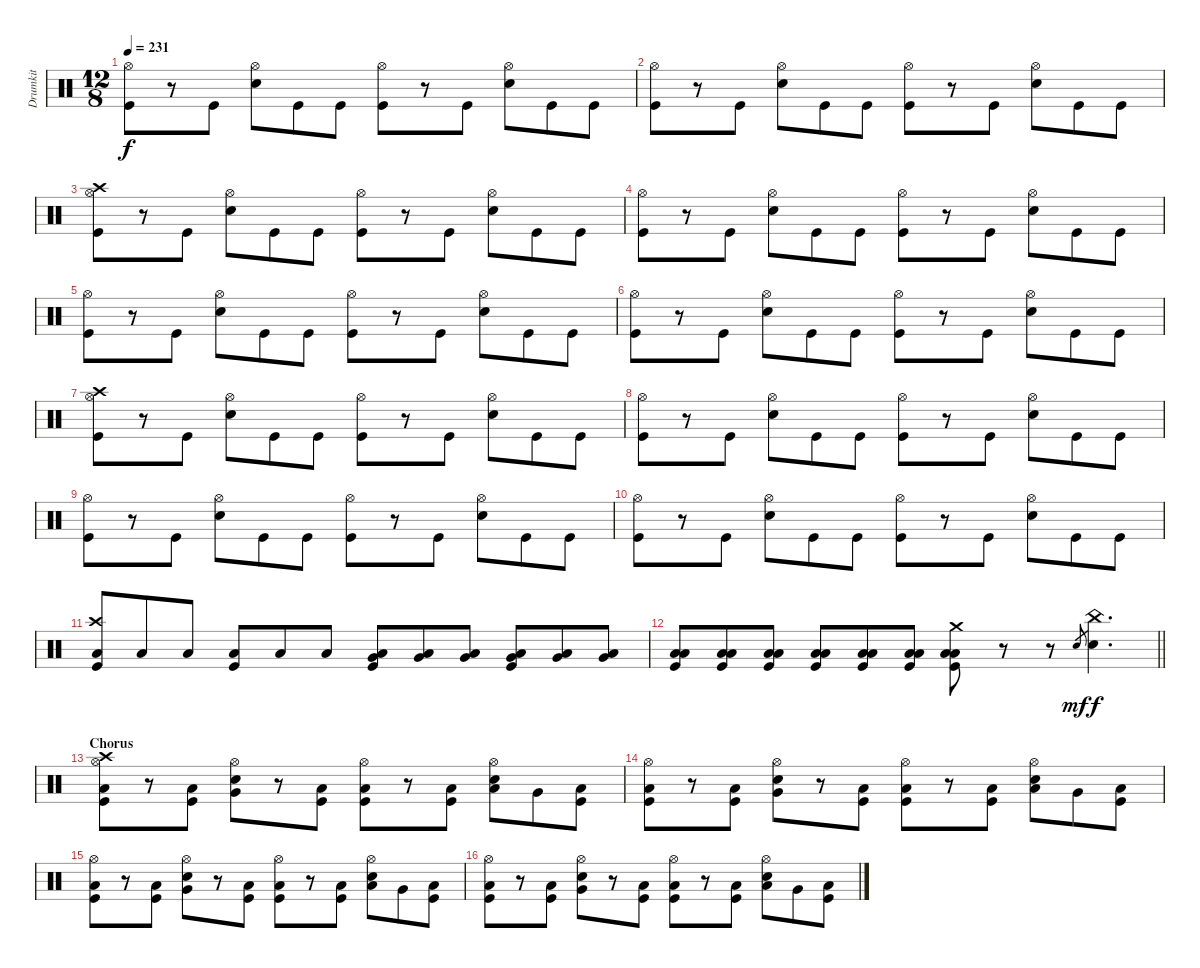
\track ("Drumkit" "Drumkit") {instrument percussion}
\staff {score}
\articulation defaults
\ts (12 8)
\tempo 231
\clef neutral
\ks c
("Hi-Hat (open)" "Kick (hit)").8{dy f} r.8 "Kick (hit)".8 ("Hi-Hat (open)" "Snare (hit) 2").8 "Kick (hit)".8 "Kick (hit)".8 ("Hi-Hat (open)" "Kick (hit)").8 r.8 "Kick (hit)".8 ("Hi-Hat (open)" "Snare (hit) 2").8 "Kick (hit)".8 "Kick (hit)".8 |
("Hi-Hat (open)" "Kick (hit)").8 r.8 "Kick (hit)".8 ("Hi-Hat (open)" "Snare (hit) 2").8 "Kick (hit)".8 "Kick (hit)".8 ("Hi-Hat (open)" "Kick (hit)").8 r.8 "Kick (hit)".8 ("Hi-Hat (open)" "Snare (hit) 2").8 "Kick (hit)".8 "Kick (hit)".8 |
("Crash high (hit)" "Hi-Hat (open)" "Kick (hit)").8 r.8 "Kick (hit)".8 ("Hi-Hat (open)" "Snare (hit) 2").8 "Kick (hit)".8 "Kick (hit)".8 ("Hi-Hat (open)" "Kick (hit)").8 r.8 "Kick (hit)".8 ("Hi-Hat (open)" "Snare (hit) 2").8 "Kick (hit)".8 "Kick (hit)".8 |
("Hi-Hat (open)" "Kick (hit)").8 r.8 "Kick (hit)".8 ("Hi-Hat (open)" "Snare (hit) 2").8 "Kick (hit)".8 "Kick (hit)".8 ("Hi-Hat (open)" "Kick (hit)").8 r.8 "Kick (hit)".8 ("Hi-Hat (open)" "Snare (hit) 2").8 "Kick (hit)".8 "Kick (hit)".8 |
("Hi-Hat (open)" "Kick (hit)").8 r.8 "Kick (hit)".8 ("Hi-Hat (open)" "Snare (hit) 2").8 "Kick (hit)".8 "Kick (hit)".8 ("Hi-Hat (open)" "Kick (hit)").8 r.8 "Kick (hit)".8 ("Hi-Hat (open)" "Snare (hit) 2").8 "Kick (hit)".8 "Kick (hit)".8 |
("Hi-Hat (open)" "Kick (hit)").8 r.8 "Kick (hit)".8 ("Hi-Hat (open)" "Snare (hit) 2").8 "Kick (hit)".8 "Kick (hit)".8 ("Hi-Hat (open)" "Kick (hit)").8 r.8 "Kick (hit)".8 ("Hi-Hat (open)" "Snare (hit) 2").8 "Kick (hit)".8 "Kick (hit)".8 |
("Crash high (hit)" "Hi-Hat (open)" "Kick (hit)").8 r.8 "Kick (hit)".8 ("Hi-Hat (open)" "Snare (hit) 2").8 "Kick (hit)".8 "Kick (hit)".8 ("Hi-Hat (open)" "Kick (hit)").8 r.8 "Kick (hit)".8 ("Hi-Hat (open)" "Snare (hit) 2").8 "Kick (hit)".8 "Kick (hit)".8 |
("Hi-Hat (open)" "Kick (hit)").8 r.8 "Kick (hit)".8 ("Hi-Hat (open)" "Snare (hit) 2").8 "Kick (hit)".8 "Kick (hit)".8 ("Hi-Hat (open)" "Kick (hit)").8 r.8 "Kick (hit)".8 ("Hi-Hat (open)" "Snare (hit) 2").8 "Kick (hit)".8 "Kick (hit)".8 |
("Hi-Hat (open)" "Kick (hit)").8 r.8 "Kick (hit)".8 ("Hi-Hat (open)" "Snare (hit) 2").8 "Kick (hit)".8 "Kick (hit)".8 ("Hi-Hat (open)" "Kick (hit)").8 r.8 "Kick (hit)".8 ("Hi-Hat (open)" "Snare (hit) 2").8 "Kick (hit)".8 "Kick (hit)".8 |
("Hi-Hat (open)" "Kick (hit)").8 r.8 "Kick (hit)".8 ("Hi-Hat (open)" "Snare (hit) 2").8 "Kick (hit)".8 "Kick (hit)".8 ("Hi-Hat (open)" "Kick (hit)").8 r.8 "Kick (hit)".8 ("Hi-Hat (open)" "Snare (hit) 2").8 "Kick (hit)".8 "Kick (hit)".8 |
("Crash high (hit)" "Low Floor Tom (hit)" "Kick (hit)").8 "Low Floor Tom (hit)".8 "Low Floor Tom (hit)".8 ("Low Floor Tom (hit)" "Kick (hit)").8 "Low Floor Tom (hit)".8 "Low Floor Tom (hit)".8 ("Very Low Tom (hit)" "Low Floor Tom (hit)" "Kick (hit)").8 ("Very Low Tom (hit)" "Low Floor Tom (hit)").8 ("Very Low Tom (hit)" "Low Floor Tom (hit)").8 ("Very Low Tom (hit)" "Low Floor Tom (hit)" "Kick (hit)").8 ("Very Low Tom (hit)" "Low Floor Tom (hit)").8 ("Very Low Tom (hit)" "Low Floor Tom (hit)").8 |
\barLineRight lightlight
("Low Tom (hit)" "Low Floor Tom (hit)" "Kick (hit)").8 ("Low Tom (hit)" "Low Floor Tom (hit)" "Kick (hit)").8 ("Low Tom (hit)" "Low Floor Tom (hit)" "Kick (hit)").8 ("Low Tom (hit)" "Low Floor Tom (hit)" "Kick (hit)").8 ("Low Tom (hit)" "Low Floor Tom (hit)" "Kick (hit)").8 ("Low Tom (hit)" "Low Floor Tom (hit)" "Kick (hit)").8 ("Crash medium (hit)" "Low Tom (hit)" "Low Floor Tom (hit)" "Kick (hit)").8 r.8 r.8 "Snare (hit)".8{gr dy mf} ("China (hit)" "Snare (hit) 2").4{d dy f} |
\section ("" "Chorus")
("Crash high (hit)" "Hi-Hat (open)" "Low Floor Tom (hit)" "Kick (hit)").8 r.8 ("Low Floor Tom (hit)" "Kick (hit)").8 ("Hi-Hat (open)" "Very Low Tom (hit)" "Snare (hit) 2").8 r.8 ("Low Floor Tom (hit)" "Kick (hit)").8 ("Hi-Hat (open)" "Low Floor Tom (hit)" "Kick (hit)").8 r.8 ("Low Floor Tom (hit)" "Kick (hit)").8 ("Hi-Hat (open)" "Low Tom (hit)" "Snare (hit) 2").8 "Very Low Tom (hit)".8 ("Low Floor Tom (hit)" "Kick (hit)").8 |
("Hi-Hat (open)" "Low Floor Tom (hit)" "Kick (hit)").8 r.8 ("Low Floor Tom (hit)" "Kick (hit)").8 ("Hi-Hat (open)" "Very Low Tom (hit)" "Snare (hit) 2").8 r.8 ("Low Floor Tom (hit)" "Kick (hit)").8 ("Hi-Hat (open)" "Low Floor Tom (hit)" "Kick (hit)").8 r.8 ("Low Floor Tom (hit)" "Kick (hit)").8 ("Hi-Hat (open)" "Low Tom (hit)" "Snare (hit) 2").8 "Very Low Tom (hit)".8 ("Low Floor Tom (hit)" "Kick (hit)").8 |
("Hi-Hat (open)" "Low Floor Tom (hit)" "Kick (hit)").8 r.8 ("Low Floor Tom (hit)" "Kick (hit)").8 ("Hi-Hat (open)" "Very Low Tom (hit)" "Snare (hit) 2").8 r.8 ("Low Floor Tom (hit)" "Kick (hit)").8 ("Hi-Hat (open)" "Low Floor Tom (hit)" "Kick (hit)").8 r.8 ("Low Floor Tom (hit)" "Kick (hit)").8 ("Hi-Hat (open)" "Low Tom (hit)" "Snare (hit) 2").8 "Very Low Tom (hit)".8 ("Low Floor Tom (hit)" "Kick (hit)").8 |
("Hi-Hat (open)" "Low Floor Tom (hit)" "Kick (hit)").8 r.8 ("Low Floor Tom (hit)" "Kick (hit)").8 ("Hi-Hat (open)" "Very Low Tom (hit)" "Snare (hit) 2").8 r.8 ("Low Floor Tom (hit)" "Kick (hit)").8 ("Hi-Hat (open)" "Low Floor Tom (hit)" "Kick (hit)").8 r.8 ("Low Floor Tom (hit)" "Kick (hit)").8 ("Hi-Hat (open)" "Low Tom (hit)" "Snare (hit) 2").8 "Very Low Tom (hit)".8 ("Low Floor Tom (hit)" "Kick (hit)").8
